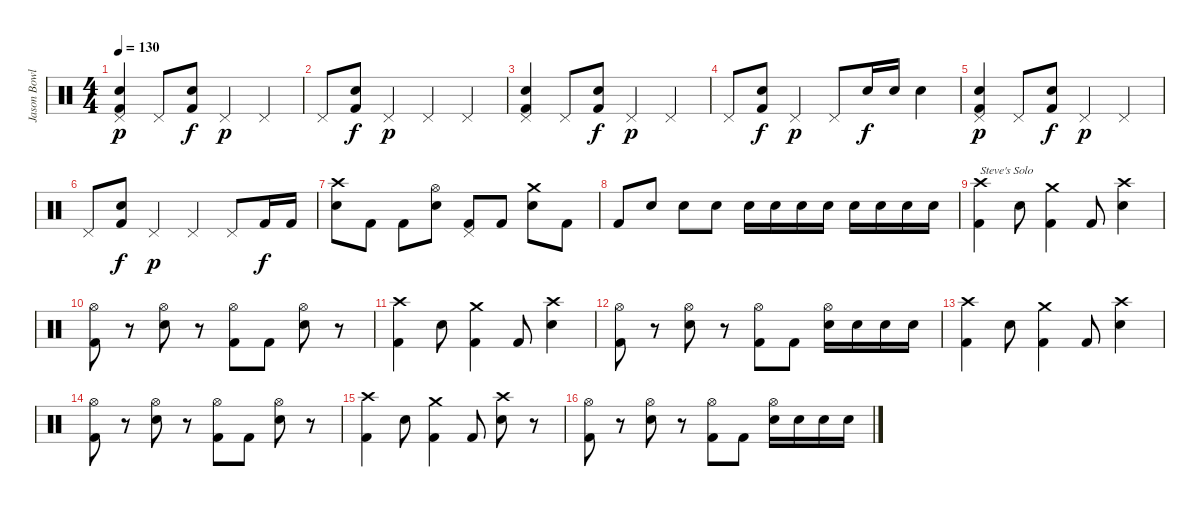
\track ("Jason Bowld" "Jason Bowl") {instrument percussion}
\staff {score}
\articulation defaults
\ts (4 4)
\tempo 130
\clef neutral
\ks c
("Pedal Hi-Hat (hit)" "Snare (hit) 2" "Kick (hit) 2").4{dy p} "Pedal Hi-Hat (hit)".8 ("Snare (hit) 2" "Kick (hit) 2").8{dy f} "Pedal Hi-Hat (hit)".4{dy p} "Pedal Hi-Hat (hit)".4 |
"Pedal Hi-Hat (hit)".8 ("Snare (hit) 2" "Kick (hit) 2").8{dy f} "Pedal Hi-Hat (hit)".4{dy p} "Pedal Hi-Hat (hit)".4 "Pedal Hi-Hat (hit)".4 |
("Pedal Hi-Hat (hit)" "Snare (hit) 2" "Kick (hit) 2").4 "Pedal Hi-Hat (hit)".8 ("Snare (hit) 2" "Kick (hit) 2").8{dy f} "Pedal Hi-Hat (hit)".4{dy p} "Pedal Hi-Hat (hit)".4 |
"Pedal Hi-Hat (hit)".8 ("Snare (hit) 2" "Kick (hit) 2").8{dy f} "Pedal Hi-Hat (hit)".4{dy p} "Pedal Hi-Hat (hit)".8 "Snare (hit) 2".16{dy f} "Snare (hit) 2".16 "Snare (hit) 2".4 |
("Pedal Hi-Hat (hit)" "Snare (hit) 2" "Kick (hit) 2").4{dy p} "Pedal Hi-Hat (hit)".8 ("Snare (hit) 2" "Kick (hit) 2").8{dy f} "Pedal Hi-Hat (hit)".4{dy p} "Pedal Hi-Hat (hit)".4 |
"Pedal Hi-Hat (hit)".8 ("Snare (hit) 2" "Kick (hit) 2").8{dy f} "Pedal Hi-Hat (hit)".4{dy p} "Pedal Hi-Hat (hit)".4 "Pedal Hi-Hat (hit)".8 "Kick (hit) 2".16{dy f} "Kick (hit) 2".16 |
("Crash high (hit)" "Snare (hit) 2").8 "Kick (hit) 2".8 "Kick (hit) 2".8 ("Hi-Hat (open)" "Snare (hit) 2").8 ("Pedal Hi-Hat (hit)" "Kick (hit) 2").8 "Kick (hit) 2".8 ("Crash medium (hit)" "Snare (hit) 2").8 "Kick (hit) 2".8 |
"Kick (hit) 2".8 "Snare (hit) 2".8 "Snare (hit) 2".8 "Snare (hit) 2".8 "Snare (hit) 2".16 "Snare (hit) 2".16 "Snare (hit) 2".16 "Snare (hit) 2".16 "Snare (hit) 2".16 "Snare (hit) 2".16 "Snare (hit) 2".16 "Snare (hit) 2".16 |
("Crash high (hit)" "Kick (hit) 2").4{txt "Steve's Solo"} "Snare (hit) 2".8 ("Crash medium (hit)" "Kick (hit) 2").4 "Kick (hit) 2".8 ("Crash high (hit)" "Snare (hit) 2").4 |
("Hi-Hat (open)" "Kick (hit) 2").8 r.8 ("Hi-Hat (open)" "Snare (hit) 2").8 r.8 ("Hi-Hat (open)" "Kick (hit) 2").8 "Kick (hit) 2".8 ("Hi-Hat (open)" "Snare (hit) 2").8 r.8 |
("Crash high (hit)" "Kick (hit) 2").4 "Snare (hit) 2".8 ("Crash medium (hit)" "Kick (hit) 2").4 "Kick (hit) 2".8 ("Crash high (hit)" "Snare (hit) 2").4 |
("Hi-Hat (open)" "Kick (hit) 2").8 r.8 ("Hi-Hat (open)" "Snare (hit) 2").8 r.8 ("Hi-Hat (open)" "Kick (hit) 2").8 "Kick (hit) 2".8 ("Hi-Hat (open)" "Snare (hit) 2").16 "Snare (hit) 2".16 "Snare (hit) 2".16 "Snare (hit) 2".16 |
("Crash high (hit)" "Kick (hit) 2").4 "Snare (hit) 2".8 ("Crash medium (hit)" "Kick (hit) 2").4 "Kick (hit) 2".8 ("Crash high (hit)" "Snare (hit) 2").4 |
("Hi-Hat (open)" "Kick (hit) 2").8 r.8 ("Hi-Hat (open)" "Snare (hit) 2").8 r.8 ("Hi-Hat (open)" "Kick (hit) 2").8 "Kick (hit) 2".8 ("Hi-Hat (open)" "Snare (hit) 2").8 r.8 |
("Crash high (hit)" "Kick (hit) 2").4 "Snare (hit) 2".8 ("Crash medium (hit)" "Kick (hit) 2").4 "Kick (hit) 2".8 ("Crash high (hit)" "Snare (hit) 2").8 r.8 |
("Hi-Hat (open)" "Kick (hit) 2").8 r.8 ("Hi-Hat (open)" "Snare (hit) 2").8 r.8 ("Hi-Hat (open)" "Kick (hit) 2").8 "Kick (hit) 2".8 ("Hi-Hat (open)" "Snare (hit) 2").16 "Snare (hit) 2".16 "Snare (hit) 2".16 "Snare (hit) 2".16
